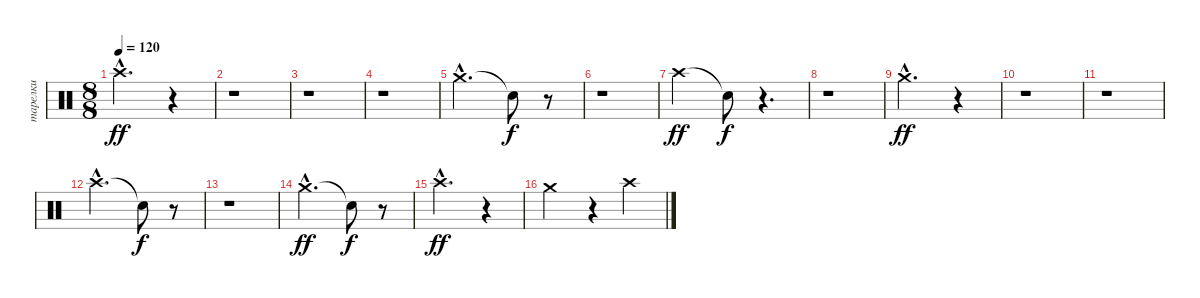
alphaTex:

\track ("тарелки" "тарелки") {instrument percussion}
\staff {score}
\articulation defaults
\ts (8 8)
\tempo 120
\clef neutral
\ks c "Crash high (hit)"{hac}.2{d dy ff}
r.4 |
r.1 |
r.1 |
r.1 |
"Crash medium (hit)"{hac}.2{d} "Snare (hit)"{t}.8{dy f} r.8 |
r.1 |
"Crash high (hit)".2{dy ff} "Snare (hit)"{t}.8{dy f} r.4{d} |
r.1 |
"Crash medium (hit)"{hac}.2{d dy ff} r.4 |
r.1 |
r.1 |
"Crash high (hit)"{hac}.2{d} "Snare (hit)"{t}.8{dy f} r.8 |
r.1 |
"Crash medium (hit)"{hac}.2{d dy ff} "Snare (hit)"{t}.8{dy f} r.8 |
"Crash high (hit)"{hac}.2{d dy ff} r.4 |
"Crash medium (hit)".2 r.4 "Crash high (hit)".4
